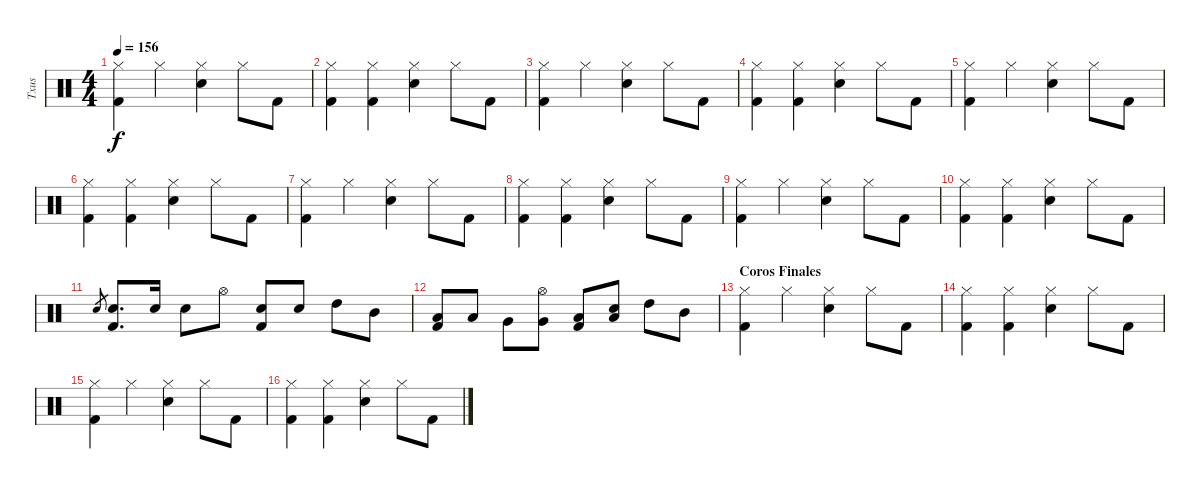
\track ("Txus" "Txus") {instrument percussion}
\staff {score}
\articulation defaults
\ts (4 4)
\tempo 156
\clef neutral
\ks c
("Hi-Hat (closed)" "Kick (hit) 2").4{dy f} "Hi-Hat (closed)".4 ("Snare (hit) 2" "Hi-Hat (closed)").4 "Hi-Hat (closed)".8 "Kick (hit) 2".8 |
("Kick (hit) 2" "Hi-Hat (closed)").4 ("Hi-Hat (closed)" "Kick (hit) 2").4 ("Hi-Hat (closed)" "Snare (hit) 2").4 "Hi-Hat (closed)".8 "Kick (hit) 2".8 |
("Hi-Hat (closed)" "Kick (hit) 2").4 "Hi-Hat (closed)".4 ("Snare (hit) 2" "Hi-Hat (closed)").4 "Hi-Hat (closed)".8 "Kick (hit) 2".8 |
("Kick (hit) 2" "Hi-Hat (closed)").4 ("Hi-Hat (closed)" "Kick (hit) 2").4 ("Hi-Hat (closed)" "Snare (hit) 2").4 "Hi-Hat (closed)".8 "Kick (hit) 2".8 |
("Hi-Hat (closed)" "Kick (hit) 2").4 "Hi-Hat (closed)".4 ("Snare (hit) 2" "Hi-Hat (closed)").4 "Hi-Hat (closed)".8 "Kick (hit) 2".8 |
("Kick (hit) 2" "Hi-Hat (closed)").4 ("Hi-Hat (closed)" "Kick (hit) 2").4 ("Hi-Hat (closed)" "Snare (hit) 2").4 "Hi-Hat (closed)".8 "Kick (hit) 2".8 |
("Hi-Hat (closed)" "Kick (hit) 2").4 "Hi-Hat (closed)".4 ("Snare (hit) 2" "Hi-Hat (closed)").4 "Hi-Hat (closed)".8 "Kick (hit) 2".8 |
("Kick (hit) 2" "Hi-Hat (closed)").4 ("Hi-Hat (closed)" "Kick (hit) 2").4 ("Hi-Hat (closed)" "Snare (hit) 2").4 "Hi-Hat (closed)".8 "Kick (hit) 2".8 |
("Hi-Hat (closed)" "Kick (hit) 2").4 "Hi-Hat (closed)".4 ("Snare (hit) 2" "Hi-Hat (closed)").4 "Hi-Hat (closed)".8 "Kick (hit) 2".8 |
("Kick (hit) 2" "Hi-Hat (closed)").4 ("Hi-Hat (closed)" "Kick (hit) 2").4 ("Hi-Hat (closed)" "Snare (hit) 2").4 "Hi-Hat (closed)".8 "Kick (hit) 2".8 |
"Snare (hit) 2".8{gr} ("Kick (hit) 2" "Snare (hit) 2").8{d} "Snare (hit) 2".16 "Snare (hit) 2".8 "Hi-Hat (open)".8 ("Kick (hit) 2" "Snare (hit) 2").8 "Snare (hit) 2".8 "High Tom (hit)".8 "Mid Tom (hit)".8 |
("Kick (hit) 2" "Low Tom (hit)").8 "Low Tom (hit)".8 "Very Low Tom (hit)".8 ("Very Low Tom (hit)" "Hi-Hat (open)").8 ("Kick (hit) 2" "Low Floor Tom (hit)").8 ("Low Floor Tom (hit)" "Snare (hit) 2").8 "High Tom (hit)".8 "Mid Tom (hit)".8 |
\section ("" "Coros Finales")
("Hi-Hat (closed)" "Kick (hit) 2").4 "Hi-Hat (closed)".4 ("Snare (hit) 2" "Hi-Hat (closed)").4 "Hi-Hat (closed)".8 "Kick (hit) 2".8 |
("Kick (hit) 2" "Hi-Hat (closed)").4 ("Hi-Hat (closed)" "Kick (hit) 2").4 ("Hi-Hat (closed)" "Snare (hit) 2").4 "Hi-Hat (closed)".8 "Kick (hit) 2".8 |
("Hi-Hat (closed)" "Kick (hit) 2").4 "Hi-Hat (closed)".4 ("Snare (hit) 2" "Hi-Hat (closed)").4 "Hi-Hat (closed)".8 "Kick (hit) 2".8 |
("Kick (hit) 2" "Hi-Hat (closed)").4 ("Hi-Hat (closed)" "Kick (hit) 2").4 ("Hi-Hat (closed)" "Snare (hit) 2").4 "Hi-Hat (closed)".8 "Kick (hit) 2".8
